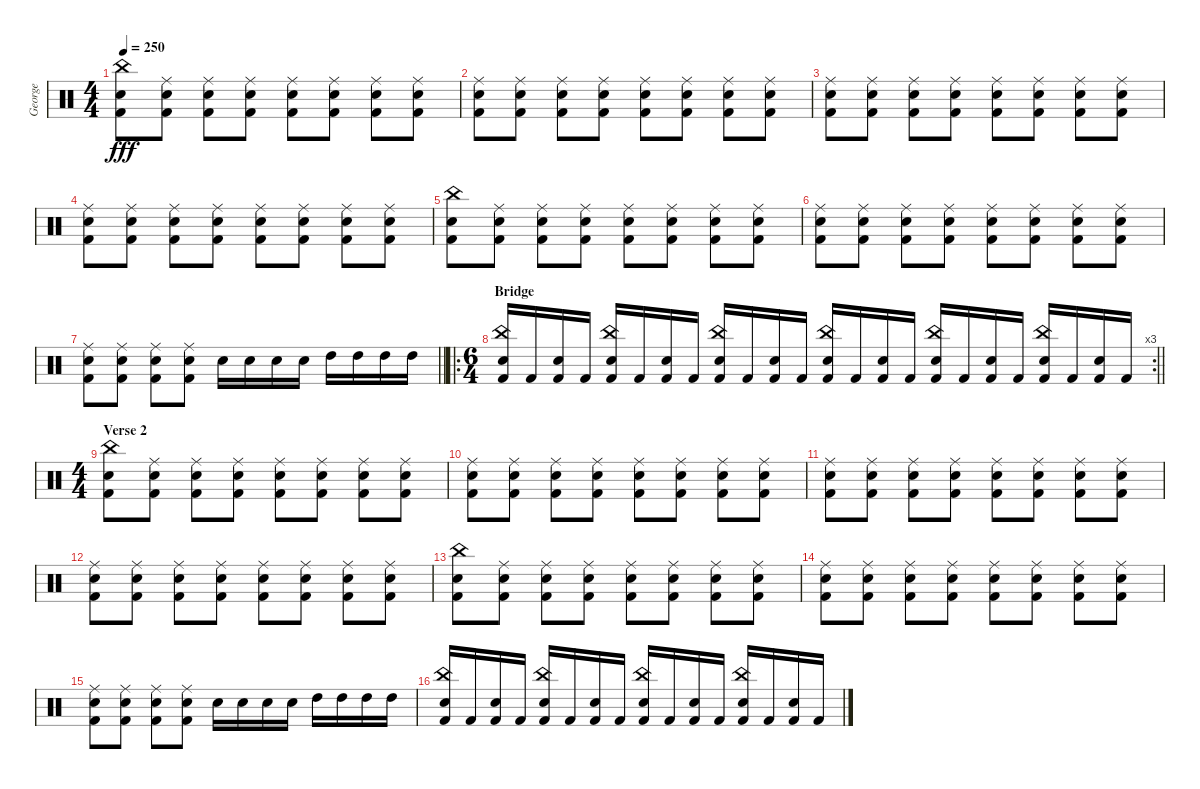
\track ("George" "George") {instrument percussion}
\staff {score}
\articulation defaults
\ts (4 4)
\tempo 250
\clef neutral
\ks c
("Snare (hit) 2" "China (hit)" "Kick (hit) 2").8{dy fff} ("Snare (hit) 2" "Ride (middle)" "Kick (hit) 2").8 ("Snare (hit) 2" "Ride (middle)" "Kick (hit) 2").8 ("Snare (hit) 2" "Ride (middle)" "Kick (hit) 2").8 ("Snare (hit) 2" "Ride (middle)" "Kick (hit) 2").8 ("Snare (hit) 2" "Ride (middle)" "Kick (hit) 2").8 ("Snare (hit) 2" "Ride (middle)" "Kick (hit) 2").8 ("Snare (hit) 2" "Ride (middle)" "Kick (hit) 2").8 |
("Snare (hit) 2" "Ride (middle)" "Kick (hit) 2").8 ("Snare (hit) 2" "Ride (middle)" "Kick (hit) 2").8 ("Snare (hit) 2" "Ride (middle)" "Kick (hit) 2").8 ("Snare (hit) 2" "Ride (middle)" "Kick (hit) 2").8 ("Snare (hit) 2" "Ride (middle)" "Kick (hit) 2").8 ("Snare (hit) 2" "Ride (middle)" "Kick (hit) 2").8 ("Snare (hit) 2" "Ride (middle)" "Kick (hit) 2").8 ("Snare (hit) 2" "Ride (middle)" "Kick (hit) 2").8 |
("Snare (hit) 2" "Ride (middle)" "Kick (hit) 2").8 ("Snare (hit) 2" "Ride (middle)" "Kick (hit) 2").8 ("Snare (hit) 2" "Ride (middle)" "Kick (hit) 2").8 ("Snare (hit) 2" "Ride (middle)" "Kick (hit) 2").8 ("Snare (hit) 2" "Ride (middle)" "Kick (hit) 2").8 ("Snare (hit) 2" "Ride (middle)" "Kick (hit) 2").8 ("Snare (hit) 2" "Ride (middle)" "Kick (hit) 2").8 ("Snare (hit) 2" "Ride (middle)" "Kick (hit) 2").8 |
("Snare (hit) 2" "Ride (middle)" "Kick (hit) 2").8 ("Snare (hit) 2" "Ride (middle)" "Kick (hit) 2").8 ("Snare (hit) 2" "Ride (middle)" "Kick (hit) 2").8 ("Snare (hit) 2" "Ride (middle)" "Kick (hit) 2").8 ("Snare (hit) 2" "Ride (middle)" "Kick (hit) 2").8 ("Snare (hit) 2" "Ride (middle)" "Kick (hit) 2").8 ("Snare (hit) 2" "Ride (middle)" "Kick (hit) 2").8 ("Snare (hit) 2" "Ride (middle)" "Kick (hit) 2").8 |
("Snare (hit) 2" "China (hit)" "Kick (hit) 2").8 ("Snare (hit) 2" "Ride (middle)" "Kick (hit) 2").8 ("Snare (hit) 2" "Ride (middle)" "Kick (hit) 2").8 ("Snare (hit) 2" "Ride (middle)" "Kick (hit) 2").8 ("Snare (hit) 2" "Ride (middle)" "Kick (hit) 2").8 ("Snare (hit) 2" "Ride (middle)" "Kick (hit) 2").8 ("Snare (hit) 2" "Ride (middle)" "Kick (hit) 2").8 ("Snare (hit) 2" "Ride (middle)" "Kick (hit) 2").8 |
("Snare (hit) 2" "Ride (middle)" "Kick (hit) 2").8 ("Snare (hit) 2" "Ride (middle)" "Kick (hit) 2").8 ("Snare (hit) 2" "Ride (middle)" "Kick (hit) 2").8 ("Snare (hit) 2" "Ride (middle)" "Kick (hit) 2").8 ("Snare (hit) 2" "Ride (middle)" "Kick (hit) 2").8 ("Snare (hit) 2" "Ride (middle)" "Kick (hit) 2").8 ("Snare (hit) 2" "Ride (middle)" "Kick (hit) 2").8 ("Snare (hit) 2" "Ride (middle)" "Kick (hit) 2").8 |
\barLineRight lightlight
("Snare (hit) 2" "Ride (middle)" "Kick (hit) 2").8 ("Snare (hit) 2" "Ride (middle)" "Kick (hit) 2").8 ("Snare (hit) 2" "Ride (middle)" "Kick (hit) 2").8 ("Snare (hit) 2" "Ride (middle)" "Kick (hit) 2").8 "Snare (hit) 2".16 "Snare (hit) 2".16 "Snare (hit) 2".16 "Snare (hit) 2".16 "High Tom (hit)".16 "High Tom (hit)".16 "High Tom (hit)".16 "High Tom (hit)".16 |
\ro
\rc 3
\ts (6 4)
\section ("" "Bridge")
\barLineRight lightlight
("China (hit)" "Snare (hit) 2" "Kick (hit) 2").16 "Kick (hit) 2".16 ("Snare (hit) 2" "Kick (hit) 2").16 "Kick (hit) 2".16 ("China (hit)" "Snare (hit) 2" "Kick (hit) 2").16 "Kick (hit) 2".16 ("Snare (hit) 2" "Kick (hit) 2").16 "Kick (hit) 2".16 ("China (hit)" "Snare (hit) 2" "Kick (hit) 2").16 "Kick (hit) 2".16 ("Snare (hit) 2" "Kick (hit) 2").16 "Kick (hit) 2".16 ("China (hit)" "Snare (hit) 2" "Kick (hit) 2").16 "Kick (hit) 2".16 ("Snare (hit) 2" "Kick (hit) 2").16 "Kick (hit) 2".16 ("China (hit)" "Snare (hit) 2" "Kick (hit) 2").16 "Kick (hit) 2".16 ("Snare (hit) 2" "Kick (hit) 2").16 "Kick (hit) 2".16 ("China (hit)" "Snare (hit) 2" "Kick (hit) 2").16 "Kick (hit) 2".16 ("Snare (hit) 2" "Kick (hit) 2").16 "Kick (hit) 2".16 |
\ts (4 4)
\section ("" "Verse 2")
("Snare (hit) 2" "China (hit)" "Kick (hit) 2").8 ("Snare (hit) 2" "Ride (middle)" "Kick (hit) 2").8 ("Snare (hit) 2" "Ride (middle)" "Kick (hit) 2").8 ("Snare (hit) 2" "Ride (middle)" "Kick (hit) 2").8 ("Snare (hit) 2" "Ride (middle)" "Kick (hit) 2").8 ("Snare (hit) 2" "Ride (middle)" "Kick (hit) 2").8 ("Snare (hit) 2" "Ride (middle)" "Kick (hit) 2").8 ("Snare (hit) 2" "Ride (middle)" "Kick (hit) 2").8 |
("Snare (hit) 2" "Ride (middle)" "Kick (hit) 2").8 ("Snare (hit) 2" "Ride (middle)" "Kick (hit) 2").8 ("Snare (hit) 2" "Ride (middle)" "Kick (hit) 2").8 ("Snare (hit) 2" "Ride (middle)" "Kick (hit) 2").8 ("Snare (hit) 2" "Ride (middle)" "Kick (hit) 2").8 ("Snare (hit) 2" "Ride (middle)" "Kick (hit) 2").8 ("Snare (hit) 2" "Ride (middle)" "Kick (hit) 2").8 ("Snare (hit) 2" "Ride (middle)" "Kick (hit) 2").8 |
("Snare (hit) 2" "Ride (middle)" "Kick (hit) 2").8 ("Snare (hit) 2" "Ride (middle)" "Kick (hit) 2").8 ("Snare (hit) 2" "Ride (middle)" "Kick (hit) 2").8 ("Snare (hit) 2" "Ride (middle)" "Kick (hit) 2").8 ("Snare (hit) 2" "Ride (middle)" "Kick (hit) 2").8 ("Snare (hit) 2" "Ride (middle)" "Kick (hit) 2").8 ("Snare (hit) 2" "Ride (middle)" "Kick (hit) 2").8 ("Snare (hit) 2" "Ride (middle)" "Kick (hit) 2").8 |
("Snare (hit) 2" "Ride (middle)" "Kick (hit) 2").8 ("Snare (hit) 2" "Ride (middle)" "Kick (hit) 2").8 ("Snare (hit) 2" "Ride (middle)" "Kick (hit) 2").8 ("Snare (hit) 2" "Ride (middle)" "Kick (hit) 2").8 ("Snare (hit) 2" "Ride (middle)" "Kick (hit) 2").8 ("Snare (hit) 2" "Ride (middle)" "Kick (hit) 2").8 ("Snare (hit) 2" "Ride (middle)" "Kick (hit) 2").8 ("Snare (hit) 2" "Ride (middle)" "Kick (hit) 2").8 |
("Snare (hit) 2" "China (hit)" "Kick (hit) 2").8 ("Snare (hit) 2" "Ride (middle)" "Kick (hit) 2").8 ("Snare (hit) 2" "Ride (middle)" "Kick (hit) 2").8 ("Snare (hit) 2" "Ride (middle)" "Kick (hit) 2").8 ("Snare (hit) 2" "Ride (middle)" "Kick (hit) 2").8 ("Snare (hit) 2" "Ride (middle)" "Kick (hit) 2").8 ("Snare (hit) 2" "Ride (middle)" "Kick (hit) 2").8 ("Snare (hit) 2" "Ride (middle)" "Kick (hit) 2").8 |
("Snare (hit) 2" "Ride (middle)" "Kick (hit) 2").8 ("Snare (hit) 2" "Ride (middle)" "Kick (hit) 2").8 ("Snare (hit) 2" "Ride (middle)" "Kick (hit) 2").8 ("Snare (hit) 2" "Ride (middle)" "Kick (hit) 2").8 ("Snare (hit) 2" "Ride (middle)" "Kick (hit) 2").8 ("Snare (hit) 2" "Ride (middle)" "Kick (hit) 2").8 ("Snare (hit) 2" "Ride (middle)" "Kick (hit) 2").8 ("Snare (hit) 2" "Ride (middle)" "Kick (hit) 2").8 |
("Snare (hit) 2" "Ride (middle)" "Kick (hit) 2").8 ("Snare (hit) 2" "Ride (middle)" "Kick (hit) 2").8 ("Snare (hit) 2" "Ride (middle)" "Kick (hit) 2").8 ("Snare (hit) 2" "Ride (middle)" "Kick (hit) 2").8 "Snare (hit) 2".16 "Snare (hit) 2".16 "Snare (hit) 2".16 "Snare (hit) 2".16 "High Tom (hit)".16 "High Tom (hit)".16 "High Tom (hit)".16 "High Tom (hit)".16 |
("China (hit)" "Snare (hit) 2" "Kick (hit) 2").16 "Kick (hit) 2".16 ("Snare (hit) 2" "Kick (hit) 2").16 "Kick (hit) 2".16 ("China (hit)" "Snare (hit) 2" "Kick (hit) 2").16 "Kick (hit) 2".16 ("Snare (hit) 2" "Kick (hit) 2").16 "Kick (hit) 2".16 ("China (hit)" "Snare (hit) 2" "Kick (hit) 2").16 "Kick (hit) 2".16 ("Snare (hit) 2" "Kick (hit) 2").16 "Kick (hit) 2".16 ("China (hit)" "Snare (hit) 2" "Kick (hit) 2").16 "Kick (hit) 2".16 ("Snare (hit) 2" "Kick (hit) 2").16 "Kick (hit) 2".16
